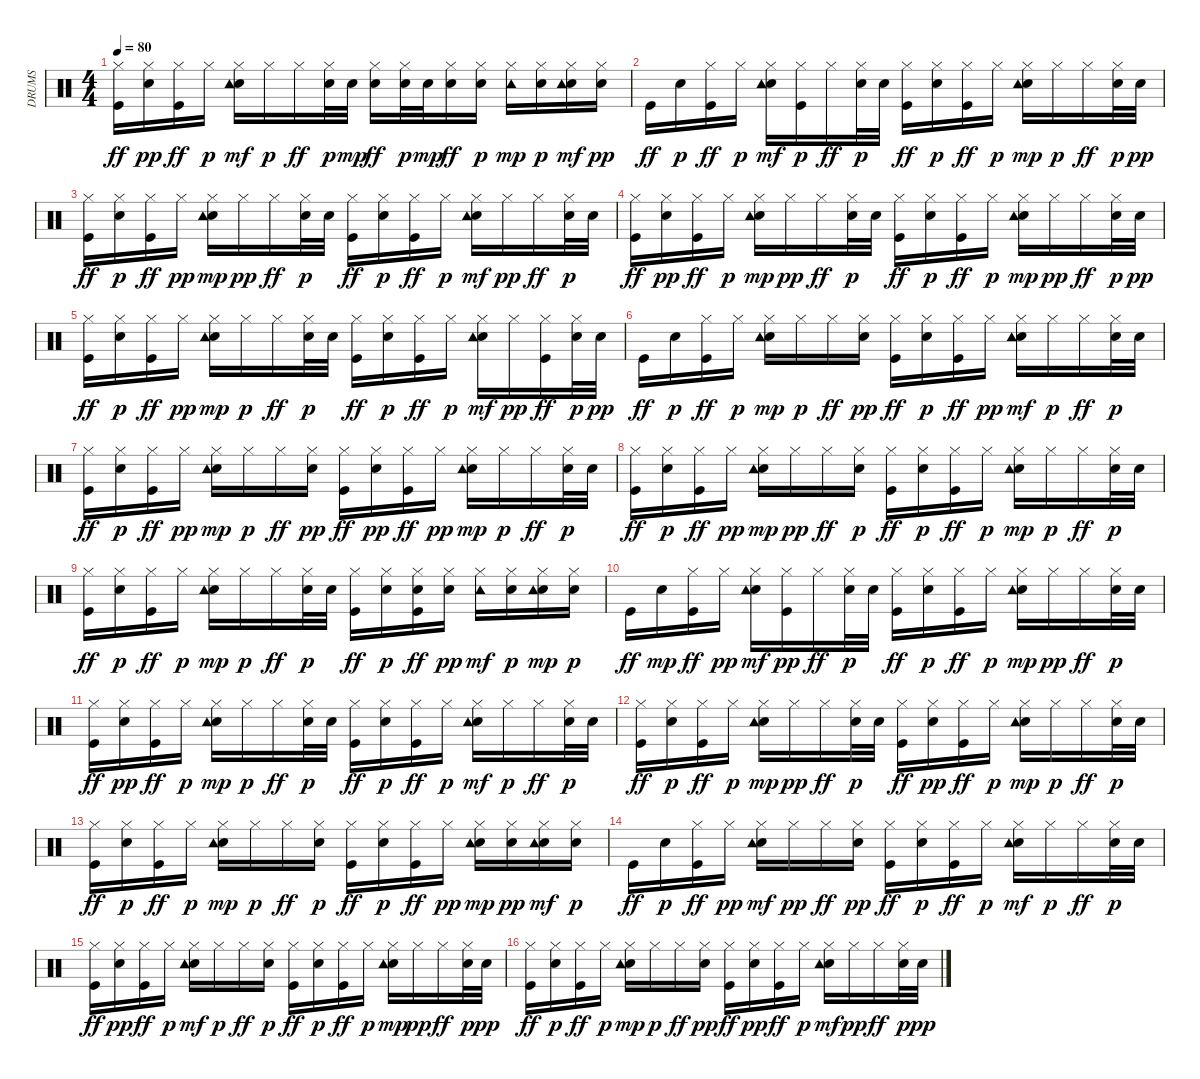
\track ("DRUMS" "DRUMS") {instrument percussion}
\staff {score}
\articulation defaults
\ts (4 4)
\tempo 80
\clef neutral
\ks c
("Kick (hit)" "Hi-Hat (closed)").16{dy ff} ("Snare (hit) 2" "Hi-Hat (closed)").16{dy pp} ("Kick (hit)" "Hi-Hat (closed)").16{dy ff} "Hi-Hat (closed)".16{dy p} ("Snare (hit) 2" "Hi-Hat (closed)" "Tambourine (hit)").16{dy mf} "Hi-Hat (closed)".16{dy p} "Hi-Hat (closed)".16{dy ff} ("Hi-Hat (closed)" "Snare (hit) 2").32{dy p} "Snare (hit) 2".32{dy mp} ("Snare (hit) 2" "Hi-Hat (closed)").16{dy ff} ("Hi-Hat (closed)" "Snare (hit) 2").32{dy p} "Snare (hit) 2".32{dy mp} ("Snare (hit) 2" "Hi-Hat (closed)").16{dy ff} ("Snare (hit) 2" "Hi-Hat (closed)").16{dy p} ("Hi-Hat (closed)" "Tambourine (hit)").16{dy mp} ("Snare (hit) 2" "Hi-Hat (closed)").16{dy p} ("Snare (hit) 2" "Hi-Hat (closed)" "Tambourine (hit)").16{dy mf} ("Snare (hit) 2" "Hi-Hat (closed)").16{dy pp} |
"Kick (hit)".16{dy ff} "Snare (hit) 2".16{dy p} ("Kick (hit)" "Hi-Hat (closed)").16{dy ff} "Hi-Hat (closed)".16{dy p} ("Snare (hit) 2" "Hi-Hat (closed)" "Tambourine (hit)").16{dy mf} ("Kick (hit)" "Hi-Hat (closed)").16{dy p} "Hi-Hat (closed)".16{dy ff} ("Hi-Hat (closed)" "Snare (hit) 2").32{dy p} "Snare (hit) 2".32 ("Kick (hit)" "Hi-Hat (closed)").16{dy ff} ("Snare (hit) 2" "Hi-Hat (closed)").16{dy p} ("Kick (hit)" "Hi-Hat (closed)").16{dy ff} "Hi-Hat (closed)".16{dy p} ("Snare (hit) 2" "Hi-Hat (closed)" "Tambourine (hit)").16{dy mp} "Hi-Hat (closed)".16{dy p} "Hi-Hat (closed)".16{dy ff} ("Hi-Hat (closed)" "Snare (hit) 2").32{dy p} "Snare (hit) 2".32{dy pp} |
("Kick (hit)" "Hi-Hat (closed)").16{dy ff} ("Snare (hit) 2" "Hi-Hat (closed)").16{dy p} ("Kick (hit)" "Hi-Hat (closed)").16{dy ff} "Hi-Hat (closed)".16{dy pp} ("Snare (hit) 2" "Hi-Hat (closed)" "Tambourine (hit)").16{dy mp} "Hi-Hat (closed)".16{dy pp} "Hi-Hat (closed)".16{dy ff} ("Hi-Hat (closed)" "Snare (hit) 2").32{dy p} "Snare (hit) 2".32 ("Kick (hit)" "Hi-Hat (closed)").16{dy ff} ("Snare (hit) 2" "Hi-Hat (closed)").16{dy p} ("Kick (hit)" "Hi-Hat (closed)").16{dy ff} "Hi-Hat (closed)".16{dy p} ("Snare (hit) 2" "Hi-Hat (closed)" "Tambourine (hit)").16{dy mf} "Hi-Hat (closed)".16{dy pp} "Hi-Hat (closed)".16{dy ff} ("Hi-Hat (closed)" "Snare (hit) 2").32{dy p} "Snare (hit) 2".32 |
("Kick (hit)" "Hi-Hat (closed)").16{dy ff} ("Snare (hit) 2" "Hi-Hat (closed)").16{dy pp} ("Kick (hit)" "Hi-Hat (closed)").16{dy ff} "Hi-Hat (closed)".16{dy p} ("Snare (hit) 2" "Hi-Hat (closed)" "Tambourine (hit)").16{dy mp} "Hi-Hat (closed)".16{dy pp} "Hi-Hat (closed)".16{dy ff} ("Hi-Hat (closed)" "Snare (hit) 2").32{dy p} "Snare (hit) 2".32 ("Kick (hit)" "Hi-Hat (closed)").16{dy ff} ("Snare (hit) 2" "Hi-Hat (closed)").16{dy p} ("Kick (hit)" "Hi-Hat (closed)").16{dy ff} "Hi-Hat (closed)".16{dy p} ("Snare (hit) 2" "Hi-Hat (closed)" "Tambourine (hit)").16{dy mp} "Hi-Hat (closed)".16{dy pp} "Hi-Hat (closed)".16{dy ff} ("Hi-Hat (closed)" "Snare (hit) 2").32{dy p} "Snare (hit) 2".32{dy pp} |
("Kick (hit)" "Hi-Hat (closed)").16{dy ff} ("Snare (hit) 2" "Hi-Hat (closed)").16{dy p} ("Kick (hit)" "Hi-Hat (closed)").16{dy ff} "Hi-Hat (closed)".16{dy pp} ("Snare (hit) 2" "Hi-Hat (closed)" "Tambourine (hit)").16{dy mp} "Hi-Hat (closed)".16{dy p} "Hi-Hat (closed)".16{dy ff} ("Hi-Hat (closed)" "Snare (hit) 2").32{dy p} "Snare (hit) 2".32 ("Kick (hit)" "Hi-Hat (closed)").16{dy ff} ("Snare (hit) 2" "Hi-Hat (closed)").16{dy p} ("Kick (hit)" "Hi-Hat (closed)").16{dy ff} "Hi-Hat (closed)".16{dy p} ("Snare (hit) 2" "Hi-Hat (closed)" "Tambourine (hit)").16{dy mf} "Hi-Hat (closed)".16{dy pp} ("Kick (hit)" "Hi-Hat (closed)").16{dy ff} ("Hi-Hat (closed)" "Snare (hit) 2").32{dy p} "Snare (hit) 2".32{dy pp} |
"Kick (hit)".16{dy ff} "Snare (hit) 2".16{dy p} ("Kick (hit)" "Hi-Hat (closed)").16{dy ff} "Hi-Hat (closed)".16{dy p} ("Snare (hit) 2" "Hi-Hat (closed)" "Tambourine (hit)").16{dy mp} "Hi-Hat (closed)".16{dy p} "Hi-Hat (closed)".16{dy ff} ("Snare (hit) 2" "Hi-Hat (closed)").16{dy pp} ("Kick (hit)" "Hi-Hat (closed)").16{dy ff} ("Snare (hit) 2" "Hi-Hat (closed)").16{dy p} ("Kick (hit)" "Hi-Hat (closed)").16{dy ff} "Hi-Hat (closed)".16{dy pp} ("Snare (hit) 2" "Hi-Hat (closed)" "Tambourine (hit)").16{dy mf} "Hi-Hat (closed)".16{dy p} "Hi-Hat (closed)".16{dy ff} ("Hi-Hat (closed)" "Snare (hit) 2").32{dy p} "Snare (hit) 2".32 |
("Kick (hit)" "Hi-Hat (closed)").16{dy ff} ("Snare (hit) 2" "Hi-Hat (closed)").16{dy p} ("Kick (hit)" "Hi-Hat (closed)").16{dy ff} "Hi-Hat (closed)".16{dy pp} ("Snare (hit) 2" "Hi-Hat (closed)" "Tambourine (hit)").16{dy mp} "Hi-Hat (closed)".16{dy p} "Hi-Hat (closed)".16{dy ff} ("Snare (hit) 2" "Hi-Hat (closed)").16{dy pp} ("Kick (hit)" "Hi-Hat (closed)").16{dy ff} ("Snare (hit) 2" "Hi-Hat (closed)").16{dy pp} ("Kick (hit)" "Hi-Hat (closed)").16{dy ff} "Hi-Hat (closed)".16{dy pp} ("Snare (hit) 2" "Hi-Hat (closed)" "Tambourine (hit)").16{dy mp} "Hi-Hat (closed)".16{dy p} "Hi-Hat (closed)".16{dy ff} ("Hi-Hat (closed)" "Snare (hit) 2").32{dy p} "Snare (hit) 2".32 |
("Kick (hit)" "Hi-Hat (closed)").16{dy ff} ("Snare (hit) 2" "Hi-Hat (closed)").16{dy p} ("Kick (hit)" "Hi-Hat (closed)").16{dy ff} "Hi-Hat (closed)".16{dy pp} ("Snare (hit) 2" "Hi-Hat (closed)" "Tambourine (hit)").16{dy mp} "Hi-Hat (closed)".16{dy pp} "Hi-Hat (closed)".16{dy ff} ("Snare (hit) 2" "Hi-Hat (closed)").16{dy p} ("Kick (hit)" "Hi-Hat (closed)").16{dy ff} ("Snare (hit) 2" "Hi-Hat (closed)").16{dy p} ("Kick (hit)" "Hi-Hat (closed)").16{dy ff} "Hi-Hat (closed)".16{dy p} ("Snare (hit) 2" "Hi-Hat (closed)" "Tambourine (hit)").16{dy mp} "Hi-Hat (closed)".16{dy p} "Hi-Hat (closed)".16{dy ff} ("Hi-Hat (closed)" "Snare (hit) 2").32{dy p} "Snare (hit) 2".32 |
("Kick (hit)" "Hi-Hat (closed)").16{dy ff} ("Snare (hit) 2" "Hi-Hat (closed)").16{dy p} ("Kick (hit)" "Hi-Hat (closed)").16{dy ff} "Hi-Hat (closed)".16{dy p} ("Snare (hit) 2" "Hi-Hat (closed)" "Tambourine (hit)").16{dy mp} "Hi-Hat (closed)".16{dy p} "Hi-Hat (closed)".16{dy ff} ("Hi-Hat (closed)" "Snare (hit) 2").32{dy p} "Snare (hit) 2".32 ("Kick (hit)" "Hi-Hat (closed)").16{dy ff} ("Snare (hit) 2" "Hi-Hat (closed)").16{dy p} ("Kick (hit)" "Snare (hit) 2" "Hi-Hat (closed)").16{dy ff} ("Snare (hit) 2" "Hi-Hat (closed)").16{dy pp} ("Hi-Hat (closed)" "Tambourine (hit)").16{dy mf} ("Snare (hit) 2" "Hi-Hat (closed)").16{dy p} ("Snare (hit) 2" "Hi-Hat (closed)" "Tambourine (hit)").16{dy mp} ("Snare (hit) 2" "Hi-Hat (closed)").16{dy p} |
"Kick (hit)".16{dy ff} "Snare (hit) 2".16{dy mp} ("Kick (hit)" "Hi-Hat (closed)").16{dy ff} "Hi-Hat (closed)".16{dy pp} ("Snare (hit) 2" "Hi-Hat (closed)" "Tambourine (hit)").16{dy mf} ("Kick (hit)" "Hi-Hat (closed)").16{dy pp} "Hi-Hat (closed)".16{dy ff} ("Hi-Hat (closed)" "Snare (hit) 2").32{dy p} "Snare (hit) 2".32 ("Kick (hit)" "Hi-Hat (closed)").16{dy ff} ("Snare (hit) 2" "Hi-Hat (closed)").16{dy p} ("Kick (hit)" "Hi-Hat (closed)").16{dy ff} "Hi-Hat (closed)".16{dy p} ("Snare (hit) 2" "Hi-Hat (closed)" "Tambourine (hit)").16{dy mp} "Hi-Hat (closed)".16{dy pp} "Hi-Hat (closed)".16{dy ff} ("Hi-Hat (closed)" "Snare (hit) 2").32{dy p} "Snare (hit) 2".32 |
("Kick (hit)" "Hi-Hat (closed)").16{dy ff} ("Snare (hit) 2" "Hi-Hat (closed)").16{dy pp} ("Kick (hit)" "Hi-Hat (closed)").16{dy ff} "Hi-Hat (closed)".16{dy p} ("Snare (hit) 2" "Hi-Hat (closed)" "Tambourine (hit)").16{dy mp} "Hi-Hat (closed)".16{dy p} "Hi-Hat (closed)".16{dy ff} ("Hi-Hat (closed)" "Snare (hit) 2").32{dy p} "Snare (hit) 2".32 ("Kick (hit)" "Hi-Hat (closed)").16{dy ff} ("Snare (hit) 2" "Hi-Hat (closed)").16{dy p} ("Kick (hit)" "Hi-Hat (closed)").16{dy ff} "Hi-Hat (closed)".16{dy p} ("Snare (hit) 2" "Hi-Hat (closed)" "Tambourine (hit)").16{dy mf} "Hi-Hat (closed)".16{dy p} "Hi-Hat (closed)".16{dy ff} ("Hi-Hat (closed)" "Snare (hit) 2").32{dy p} "Snare (hit) 2".32 |
("Kick (hit)" "Hi-Hat (closed)").16{dy ff} ("Snare (hit) 2" "Hi-Hat (closed)").16{dy p} ("Kick (hit)" "Hi-Hat (closed)").16{dy ff} "Hi-Hat (closed)".16{dy p} ("Snare (hit) 2" "Hi-Hat (closed)" "Tambourine (hit)").16{dy mp} "Hi-Hat (closed)".16{dy pp} "Hi-Hat (closed)".16{dy ff} ("Hi-Hat (closed)" "Snare (hit) 2").32{dy p} "Snare (hit) 2".32 ("Kick (hit)" "Hi-Hat (closed)").16{dy ff} ("Snare (hit) 2" "Hi-Hat (closed)").16{dy pp} ("Kick (hit)" "Hi-Hat (closed)").16{dy ff} "Hi-Hat (closed)".16{dy p} ("Snare (hit) 2" "Hi-Hat (closed)" "Tambourine (hit)").16{dy mp} "Hi-Hat (closed)".16{dy p} "Hi-Hat (closed)".16{dy ff} ("Hi-Hat (closed)" "Snare (hit) 2").32{dy p} "Snare (hit) 2".32 |
("Kick (hit)" "Hi-Hat (closed)").16{dy ff} ("Snare (hit) 2" "Hi-Hat (closed)").16{dy p} ("Kick (hit)" "Hi-Hat (closed)").16{dy ff} "Hi-Hat (closed)".16{dy p} ("Snare (hit) 2" "Hi-Hat (closed)" "Tambourine (hit)").16{dy mp} "Hi-Hat (closed)".16{dy p} "Hi-Hat (closed)".16{dy ff} ("Snare (hit) 2" "Hi-Hat (closed)").16{dy p} ("Kick (hit)" "Hi-Hat (closed)").16{dy ff} ("Snare (hit) 2" "Hi-Hat (closed)").16{dy p} ("Kick (hit)" "Hi-Hat (closed)").16{dy ff} "Hi-Hat (closed)".16{dy pp} ("Snare (hit) 2" "Hi-Hat (closed)" "Tambourine (hit)").16{dy mp} ("Snare (hit) 2" "Hi-Hat (closed)").16{dy pp} ("Snare (hit) 2" "Hi-Hat (closed)" "Tambourine (hit)").16{dy mf} ("Snare (hit) 2" "Hi-Hat (closed)").16{dy p} |
"Kick (hit)".16{dy ff} "Snare (hit) 2".16{dy p} ("Kick (hit)" "Hi-Hat (closed)").16{dy ff} "Hi-Hat (closed)".16{dy pp} ("Snare (hit) 2" "Hi-Hat (closed)" "Tambourine (hit)").16{dy mf} "Hi-Hat (closed)".16{dy pp} "Hi-Hat (closed)".16{dy ff} ("Snare (hit) 2" "Hi-Hat (closed)").16{dy pp} ("Kick (hit)" "Hi-Hat (closed)").16{dy ff} ("Snare (hit) 2" "Hi-Hat (closed)").16{dy p} ("Kick (hit)" "Hi-Hat (closed)").16{dy ff} "Hi-Hat (closed)".16{dy p} ("Snare (hit) 2" "Hi-Hat (closed)" "Tambourine (hit)").16{dy mf} "Hi-Hat (closed)".16{dy p} "Hi-Hat (closed)".16{dy ff} ("Hi-Hat (closed)" "Snare (hit) 2").32{dy p} "Snare (hit) 2".32 |
("Kick (hit)" "Hi-Hat (closed)").16{dy ff} ("Snare (hit) 2" "Hi-Hat (closed)").16{dy pp} ("Kick (hit)" "Hi-Hat (closed)").16{dy ff} "Hi-Hat (closed)".16{dy p} ("Snare (hit) 2" "Hi-Hat (closed)" "Tambourine (hit)").16{dy mf} "Hi-Hat (closed)".16{dy p} "Hi-Hat (closed)".16{dy ff} ("Snare (hit) 2" "Hi-Hat (closed)").16{dy p} ("Kick (hit)" "Hi-Hat (closed)").16{dy ff} ("Snare (hit) 2" "Hi-Hat (closed)").16{dy p} ("Kick (hit)" "Hi-Hat (closed)").16{dy ff} "Hi-Hat (closed)".16{dy p} ("Snare (hit) 2" "Hi-Hat (closed)" "Tambourine (hit)").16{dy mp} "Hi-Hat (closed)".16{dy pp} "Hi-Hat (closed)".16{dy ff} ("Hi-Hat (closed)" "Snare (hit) 2").32{dy p} "Snare (hit) 2".32{dy pp} |
("Kick (hit)" "Hi-Hat (closed)").16{dy ff} ("Snare (hit) 2" "Hi-Hat (closed)").16{dy p} ("Kick (hit)" "Hi-Hat (closed)").16{dy ff} "Hi-Hat (closed)".16{dy p} ("Snare (hit) 2" "Hi-Hat (closed)" "Tambourine (hit)").16{dy mp} "Hi-Hat (closed)".16{dy p} "Hi-Hat (closed)".16{dy ff} ("Snare (hit) 2" "Hi-Hat (closed)").16{dy pp} ("Kick (hit)" "Hi-Hat (closed)").16{dy ff} ("Snare (hit) 2" "Hi-Hat (closed)").16{dy pp} ("Kick (hit)" "Hi-Hat (closed)").16{dy ff} "Hi-Hat (closed)".16{dy p} ("Snare (hit) 2" "Hi-Hat (closed)" "Tambourine (hit)").16{dy mf} "Hi-Hat (closed)".16{dy pp} "Hi-Hat (closed)".16{dy ff} ("Hi-Hat (closed)" "Snare (hit) 2").32{dy p} "Snare (hit) 2".32{dy pp}
